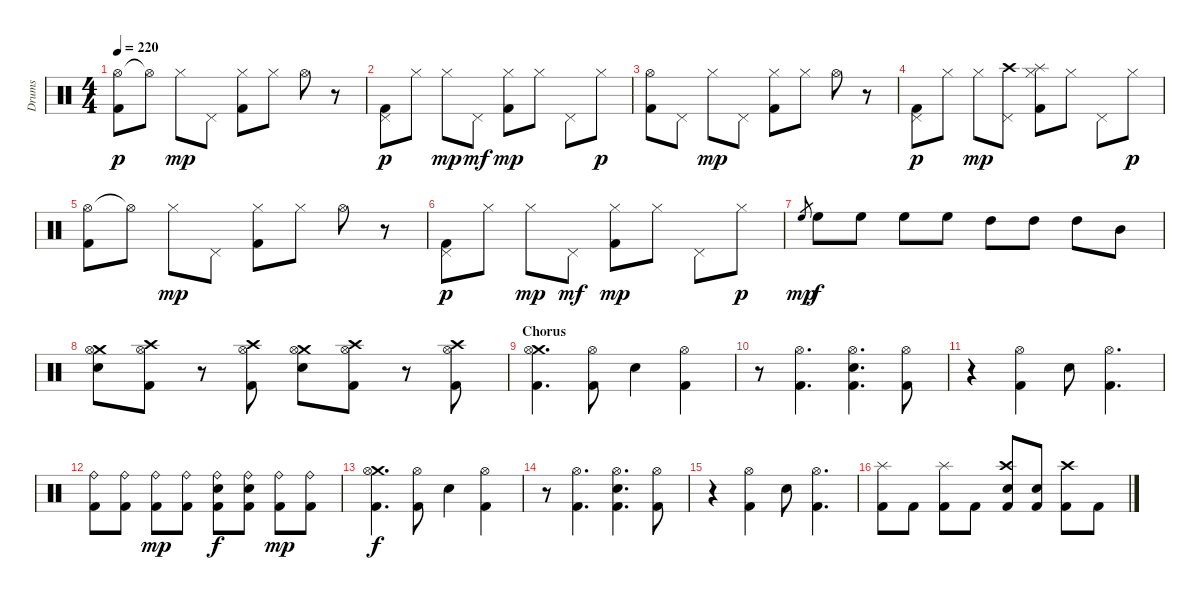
\bracketExtendMode groupsimilarinstruments
\otherSystemsTrackNameOrientation horizontal
\track ("Drumkit" "Drums") {instrument percussion}
\staff {score}
\articulation defaults
\ts (4 4)
\tempo 220
\clef neutral
\ks c
("Hi-Hat (open)" "Kick (hit) 2").8{dy p beam Down} "Hi-Hat (open)"{t}.8{beam Down} "Hi-Hat (closed)".8{dy mp beam Down} "Pedal Hi-Hat (hit)".8{beam Down} ("Hi-Hat (closed)" "Kick (hit) 2").8{beam Down} "Hi-Hat (closed)".8{beam Down} "Hi-Hat (open)".8{beam Down} r.8{beam Down} |
("Pedal Hi-Hat (hit)" "Kick (hit) 2").8{dy p beam Down} "Hi-Hat (closed)".8{beam Down} "Hi-Hat (closed)".8{dy mp beam Down} "Pedal Hi-Hat (hit)".8{dy mf beam Down} ("Hi-Hat (closed)" "Kick (hit) 2").8{dy mp beam Down} "Hi-Hat (closed)".8{beam Down} "Pedal Hi-Hat (hit)".8{beam Down} "Hi-Hat (closed)".8{dy p beam Down} |
("Hi-Hat (open)" "Kick (hit) 2").8{beam Down} "Pedal Hi-Hat (hit)".8{beam Down} "Hi-Hat (closed)".8{dy mp beam Down} "Pedal Hi-Hat (hit)".8{beam Down} ("Hi-Hat (closed)" "Kick (hit) 2").8{beam Down} "Hi-Hat (closed)".8{beam Down} "Hi-Hat (open)".8{beam Down} r.8{beam Down} |
("Pedal Hi-Hat (hit)" "Kick (hit) 2").8{dy p beam Down} "Hi-Hat (closed)".8{beam Down} "Hi-Hat (closed)".8{dy mp beam Down} ("Crash high (hit)" "Pedal Hi-Hat (hit)").8{beam Down} ("Splash (hit)" "Hi-Hat (closed)" "Kick (hit) 2").8{beam Down} "Hi-Hat (closed)".8{beam Down} "Pedal Hi-Hat (hit)".8{beam Down} "Hi-Hat (closed)".8{dy p beam Down} |
("Hi-Hat (open)" "Kick (hit) 2").8{beam Down} "Hi-Hat (open)"{t}.8{beam Down} "Hi-Hat (closed)".8{dy mp beam Down} "Pedal Hi-Hat (hit)".8{beam Down} ("Hi-Hat (closed)" "Kick (hit) 2").8{beam Down} "Hi-Hat (closed)".8{beam Down} "Hi-Hat (open)".8{beam Down} r.8{beam Down} |
("Pedal Hi-Hat (hit)" "Kick (hit) 2").8{dy p beam Down} "Hi-Hat (closed)".8{beam Down} "Hi-Hat (closed)".8{dy mp beam Down} "Pedal Hi-Hat (hit)".8{dy mf beam Down} ("Hi-Hat (closed)" "Kick (hit) 2").8{dy mp beam Down} "Hi-Hat (closed)".8{beam Down} "Pedal Hi-Hat (hit)".8{beam Down} "Hi-Hat (closed)".8{dy p beam Down} |
"High Floor Tom (hit)".8{gr dy mp beam Up} "High Floor Tom (hit)".8{dy f beam Down} "High Floor Tom (hit)".8{beam Down} "High Floor Tom (hit)".8{beam Down} "High Floor Tom (hit)".8{beam Down} "High Tom (hit)".8{beam Down} "High Tom (hit)".8{beam Down} "High Tom (hit)".8{beam Down} "Mid Tom (hit)".8{beam Down} |
("Crash medium (hit)" "Hi-Hat (open)" "Snare (hit) 2").8{beam Down} ("Crash high (hit)" "Hi-Hat (open)" "Kick (hit) 2").8{beam Down} r.8{beam Down} ("Crash high (hit)" "Hi-Hat (open)" "Kick (hit) 2").8{beam Down} ("Crash medium (hit)" "Hi-Hat (open)" "Snare (hit) 2").8{beam Down} ("Crash high (hit)" "Hi-Hat (open)" "Kick (hit) 2").8{beam Down} r.8{beam Down} ("Crash high (hit)" "Hi-Hat (open)" "Kick (hit) 2").8{beam Down} |
\section ("" "Chorus")
("Crash medium (hit)" "Hi-Hat (open)" "Kick (hit) 2").4{d beam Down} ("Hi-Hat (open)" "Kick (hit) 2").8{beam Down} "Snare (hit) 2".4{beam Down} ("Hi-Hat (open)" "Kick (hit) 2").4{beam Down} |
r.8{beam Down} ("Hi-Hat (open)" "Kick (hit) 2").4{d beam Down} ("Hi-Hat (open)" "Snare (hit) 2" "Kick (hit) 2").4{d beam Down} ("Hi-Hat (open)" "Kick (hit) 2").8{beam Down} |
r.4{beam Down} ("Hi-Hat (open)" "Kick (hit) 2").4{beam Down} "Snare (hit) 2".8{beam Down} ("Hi-Hat (open)" "Kick (hit) 2").4{d beam Down} |
("Ride (bell)" "Kick (hit) 2").8{beam Down} ("Ride (bell)" "Kick (hit) 2").8{beam Down} ("Ride (bell)" "Kick (hit) 2").8{dy mp beam Down} ("Ride (bell)" "Kick (hit) 2").8{beam Down} ("Ride (bell)" "Snare (hit) 2" "Kick (hit) 2").8{dy f beam Down} ("Ride (bell)" "Snare (hit) 2" "Kick (hit) 2").8{beam Down} ("Ride (bell)" "Kick (hit) 2").8{dy mp beam Down} ("Ride (bell)" "Kick (hit) 2").8{beam Down} |
("Crash medium (hit)" "Hi-Hat (open)" "Kick (hit) 2").4{d dy f beam Down} ("Hi-Hat (open)" "Kick (hit) 2").8{beam Down} "Snare (hit) 2".4{beam Down} ("Hi-Hat (open)" "Kick (hit) 2").4{beam Down} |
r.8{beam Down} ("Hi-Hat (open)" "Kick (hit) 2").4{d beam Down} ("Hi-Hat (open)" "Snare (hit) 2" "Kick (hit) 2").4{d beam Down} ("Hi-Hat (open)" "Kick (hit) 2").8{beam Down} |
r.4{beam Down} ("Hi-Hat (open)" "Kick (hit) 2").4{beam Down} "Snare (hit) 2".8{beam Down} ("Hi-Hat (open)" "Kick (hit) 2").4{d beam Down} |
("Splash (hit)" "Kick (hit) 2").8{beam Down} "Kick (hit) 2".8{beam Down} ("Splash (hit)" "Kick (hit) 2").8{beam Down} "Kick (hit) 2".8{beam Down} ("Crash high (hit)" "Snare (hit) 2" "Kick (hit) 2").8{beam Up} ("Snare (hit) 2" "Kick (hit) 2").8{beam Up} ("Crash high (hit)" "Kick (hit) 2").8{beam Down} "Kick (hit) 2".8{beam Down}
